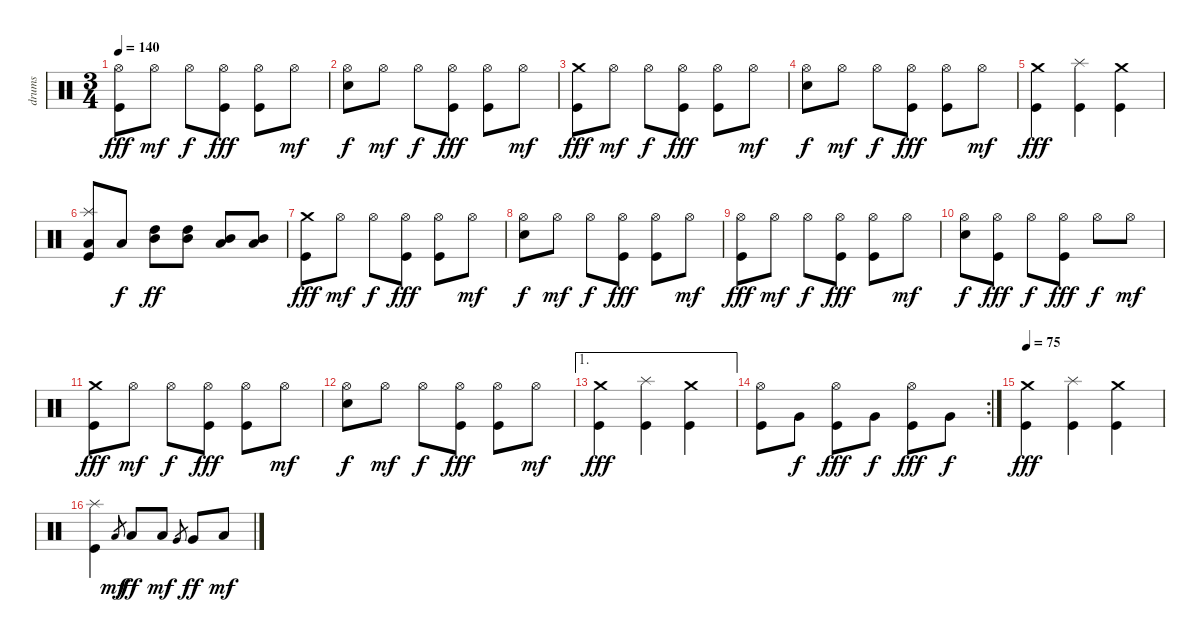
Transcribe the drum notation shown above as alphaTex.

\track ("drums" "drums") {instrument percussion}
\staff {score}
\articulation defaults
\ts (3 4)
\tempo 140
\clef neutral
\ks c
("Hi-Hat (open)" "Kick (hit)").8{dy fff} "Hi-Hat (open)".8{dy mf} "Hi-Hat (open)".8{dy f} ("Hi-Hat (open)" "Kick (hit)").8{dy fff} ("Hi-Hat (open)" "Kick (hit)").8 "Hi-Hat (open)".8{dy mf} |
("Hi-Hat (open)" "Snare (hit) 2").8{dy f} "Hi-Hat (open)".8{dy mf} "Hi-Hat (open)".8{dy f} ("Hi-Hat (open)" "Kick (hit)").8{dy fff} ("Hi-Hat (open)" "Kick (hit)").8 "Hi-Hat (open)".8{dy mf} |
("Crash medium (hit)" "Kick (hit)").8{dy fff} "Hi-Hat (open)".8{dy mf} "Hi-Hat (open)".8{dy f} ("Hi-Hat (open)" "Kick (hit)").8{dy fff} ("Hi-Hat (open)" "Kick (hit)").8 "Hi-Hat (open)".8{dy mf} |
("Hi-Hat (open)" "Snare (hit) 2").8{dy f} "Hi-Hat (open)".8{dy mf} "Hi-Hat (open)".8{dy f} ("Hi-Hat (open)" "Kick (hit)").8{dy fff} ("Hi-Hat (open)" "Kick (hit)").8 "Hi-Hat (open)".8{dy mf} |
("Crash medium (hit)" "Kick (hit)").4{dy fff} ("Splash (hit)" "Kick (hit)").4 ("Crash medium (hit)" "Kick (hit)").4 |
("Splash (hit)" "Low Tom (hit)" "Kick (hit)").8 "Low Tom (hit)".8{dy f} ("Mid Tom (hit)" "High Tom (hit)").8{dy ff} ("Mid Tom (hit)" "High Tom (hit)").8 ("Low Tom (hit)" "Mid Tom (hit)").8 ("Low Tom (hit)" "Mid Tom (hit)").8 |
("Crash medium (hit)" "Kick (hit)").8{dy fff} "Hi-Hat (open)".8{dy mf} "Hi-Hat (open)".8{dy f} ("Hi-Hat (open)" "Kick (hit)").8{dy fff} ("Hi-Hat (open)" "Kick (hit)").8 "Hi-Hat (open)".8{dy mf} |
("Hi-Hat (open)" "Snare (hit) 2").8{dy f} "Hi-Hat (open)".8{dy mf} "Hi-Hat (open)".8{dy f} ("Hi-Hat (open)" "Kick (hit)").8{dy fff} ("Hi-Hat (open)" "Kick (hit)").8 "Hi-Hat (open)".8{dy mf} |
("Hi-Hat (open)" "Kick (hit)").8{dy fff} "Hi-Hat (open)".8{dy mf} "Hi-Hat (open)".8{dy f} ("Hi-Hat (open)" "Kick (hit)").8{dy fff} ("Hi-Hat (open)" "Kick (hit)").8 "Hi-Hat (open)".8{dy mf} |
("Hi-Hat (open)" "Snare (hit) 2").8{dy f} ("Hi-Hat (open)" "Kick (hit)").8{dy fff} "Hi-Hat (open)".8{dy f} ("Hi-Hat (open)" "Kick (hit)").8{dy fff} "Hi-Hat (open)".8{dy f} "Hi-Hat (open)".8{dy mf} |
("Crash medium (hit)" "Kick (hit)").8{dy fff} "Hi-Hat (open)".8{dy mf} "Hi-Hat (open)".8{dy f} ("Hi-Hat (open)" "Kick (hit)").8{dy fff} ("Hi-Hat (open)" "Kick (hit)").8 "Hi-Hat (open)".8{dy mf} |
("Hi-Hat (open)" "Snare (hit) 2").8{dy f} "Hi-Hat (open)".8{dy mf} "Hi-Hat (open)".8{dy f} ("Hi-Hat (open)" "Kick (hit)").8{dy fff} ("Hi-Hat (open)" "Kick (hit)").8 "Hi-Hat (open)".8{dy mf} |
\ae 1
("Crash medium (hit)" "Kick (hit)").4{dy fff} ("Splash (hit)" "Kick (hit)").4 ("Crash medium (hit)" "Kick (hit)").4 |
\rc 2
("Hi-Hat (open)" "Kick (hit)").8 "Very Low Tom (hit)".8{dy f} ("Hi-Hat (open)" "Kick (hit)").8{dy fff} "Very Low Tom (hit)".8{dy f} ("Hi-Hat (open)" "Kick (hit)").8{dy fff} "Very Low Tom (hit)".8{dy f} |
\tempo 75
("Crash medium (hit)" "Kick (hit)").4{dy fff} ("Splash (hit)" "Kick (hit)").4 ("Crash medium (hit)" "Kick (hit)").4 |
("Splash (hit)" "Kick (hit)").4 "Low Tom (hit)".8{gr dy mf} "Low Tom (hit)".8{dy ff} "Low Tom (hit)".8{dy mf} "Very Low Tom (hit)".8{gr} "Very Low Tom (hit)".8{dy ff} "Low Tom (hit)".8{dy mf}
